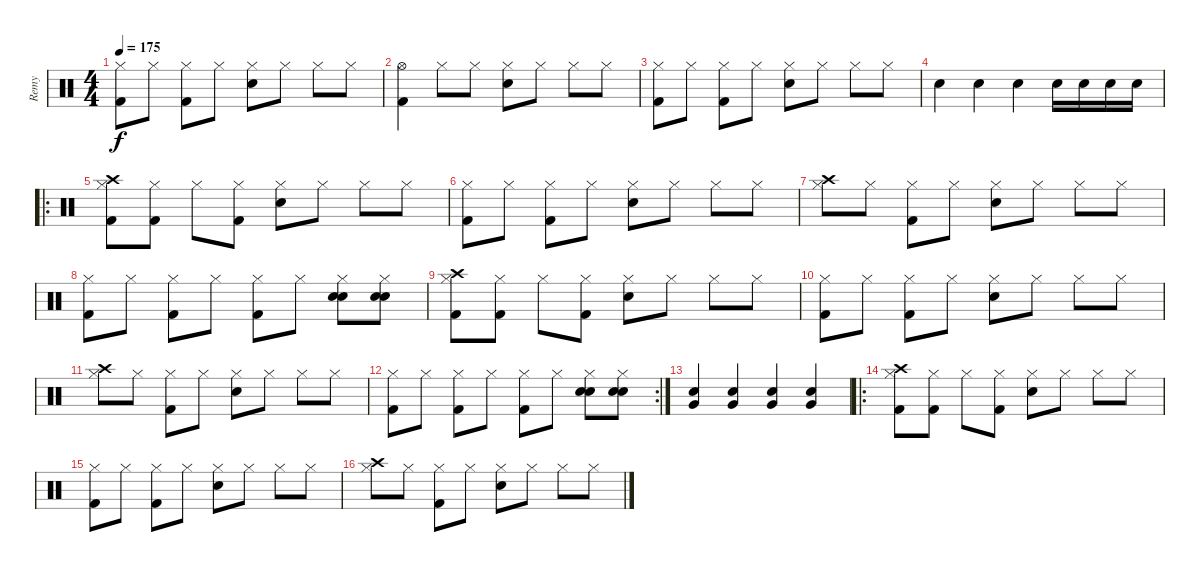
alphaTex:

\track ("Remy" "Remy") {instrument percussion}
\staff {score}
\articulation defaults
\ts (4 4)
\tempo 175
\clef neutral
\ks c
("Hi-Hat (closed)" "Kick (hit) 2").8{dy f} "Hi-Hat (closed)".8 ("Hi-Hat (closed)" "Kick (hit) 2").8 "Hi-Hat (closed)".8 ("Snare (hit) 2" "Hi-Hat (closed)").8 "Hi-Hat (closed)".8 "Hi-Hat (closed)".8 "Hi-Hat (closed)".8 |
("Hi-Hat (open)" "Kick (hit) 2").4 "Hi-Hat (closed)".8 "Hi-Hat (closed)".8 ("Snare (hit) 2" "Hi-Hat (closed)").8 "Hi-Hat (closed)".8 "Hi-Hat (closed)".8 "Hi-Hat (closed)".8 |
("Hi-Hat (closed)" "Kick (hit) 2").8 "Hi-Hat (closed)".8 ("Hi-Hat (closed)" "Kick (hit) 2").8 "Hi-Hat (closed)".8 ("Snare (hit) 2" "Hi-Hat (closed)").8 "Hi-Hat (closed)".8 "Hi-Hat (closed)".8 "Hi-Hat (closed)".8 |
"Snare (hit) 2".4 "Snare (hit) 2".4 "Snare (hit) 2".4 "Snare (hit) 2".16 "Snare (hit) 2".16 "Snare (hit) 2".16 "Snare (hit) 2".16 |
\ro
("Hi-Hat (closed)" "Crash high (hit)" "Kick (hit) 2").8 ("Hi-Hat (closed)" "Kick (hit) 2").8 "Hi-Hat (closed)".8 ("Hi-Hat (closed)" "Kick (hit) 2").8 ("Snare (hit) 2" "Hi-Hat (closed)").8 "Hi-Hat (closed)".8 "Hi-Hat (closed)".8 "Hi-Hat (closed)".8 |
("Hi-Hat (closed)" "Kick (hit) 2").8 "Hi-Hat (closed)".8 ("Hi-Hat (closed)" "Kick (hit) 2").8 "Hi-Hat (closed)".8 ("Snare (hit) 2" "Hi-Hat (closed)").8 "Hi-Hat (closed)".8 "Hi-Hat (closed)".8 "Hi-Hat (closed)".8 |
("Hi-Hat (closed)" "Crash high (hit)").8 "Hi-Hat (closed)".8 ("Hi-Hat (closed)" "Kick (hit) 2").8 "Hi-Hat (closed)".8 ("Snare (hit) 2" "Hi-Hat (closed)").8 "Hi-Hat (closed)".8 "Hi-Hat (closed)".8 "Hi-Hat (closed)".8 |
("Hi-Hat (closed)" "Kick (hit) 2").8 "Hi-Hat (closed)".8 ("Hi-Hat (closed)" "Kick (hit) 2").8 "Hi-Hat (closed)".8 ("Hi-Hat (closed)" "Kick (hit) 2").8 "Hi-Hat (closed)".8 ("Snare (hit) 2" "Hi-Hat (closed)" "Snare (hit) 2").8 ("Snare (hit) 2" "Hi-Hat (closed)" "Snare (hit) 2").8 |
("Hi-Hat (closed)" "Crash high (hit)" "Kick (hit) 2").8 ("Hi-Hat (closed)" "Kick (hit) 2").8 "Hi-Hat (closed)".8 ("Hi-Hat (closed)" "Kick (hit) 2").8 ("Snare (hit) 2" "Hi-Hat (closed)").8 "Hi-Hat (closed)".8 "Hi-Hat (closed)".8 "Hi-Hat (closed)".8 |
("Hi-Hat (closed)" "Kick (hit) 2").8 "Hi-Hat (closed)".8 ("Hi-Hat (closed)" "Kick (hit) 2").8 "Hi-Hat (closed)".8 ("Snare (hit) 2" "Hi-Hat (closed)").8 "Hi-Hat (closed)".8 "Hi-Hat (closed)".8 "Hi-Hat (closed)".8 |
("Hi-Hat (closed)" "Crash high (hit)").8 "Hi-Hat (closed)".8 ("Hi-Hat (closed)" "Kick (hit) 2").8 "Hi-Hat (closed)".8 ("Snare (hit) 2" "Hi-Hat (closed)").8 "Hi-Hat (closed)".8 "Hi-Hat (closed)".8 "Hi-Hat (closed)".8 |
\rc 2
("Hi-Hat (closed)" "Kick (hit) 2").8 "Hi-Hat (closed)".8 ("Hi-Hat (closed)" "Kick (hit) 2").8 "Hi-Hat (closed)".8 ("Hi-Hat (closed)" "Kick (hit) 2").8 "Hi-Hat (closed)".8 ("Snare (hit) 2" "Hi-Hat (closed)" "Snare (hit) 2").8 ("Snare (hit) 2" "Hi-Hat (closed)" "Snare (hit) 2").8 |
("Snare (hit) 2" "Very Low Tom (hit)").4 ("Snare (hit) 2" "Very Low Tom (hit)").4 ("Snare (hit) 2" "Very Low Tom (hit)").4 ("Snare (hit) 2" "Very Low Tom (hit)").4 |
\ro
("Hi-Hat (closed)" "Crash high (hit)" "Kick (hit) 2").8 ("Hi-Hat (closed)" "Kick (hit) 2").8 "Hi-Hat (closed)".8 ("Hi-Hat (closed)" "Kick (hit) 2").8 ("Snare (hit) 2" "Hi-Hat (closed)").8 "Hi-Hat (closed)".8 "Hi-Hat (closed)".8 "Hi-Hat (closed)".8 |
("Hi-Hat (closed)" "Kick (hit) 2").8 "Hi-Hat (closed)".8 ("Hi-Hat (closed)" "Kick (hit) 2").8 "Hi-Hat (closed)".8 ("Snare (hit) 2" "Hi-Hat (closed)").8 "Hi-Hat (closed)".8 "Hi-Hat (closed)".8 "Hi-Hat (closed)".8 |
("Hi-Hat (closed)" "Crash high (hit)").8 "Hi-Hat (closed)".8 ("Hi-Hat (closed)" "Kick (hit) 2").8 "Hi-Hat (closed)".8 ("Snare (hit) 2" "Hi-Hat (closed)").8 "Hi-Hat (closed)".8 "Hi-Hat (closed)".8 "Hi-Hat (closed)".8
